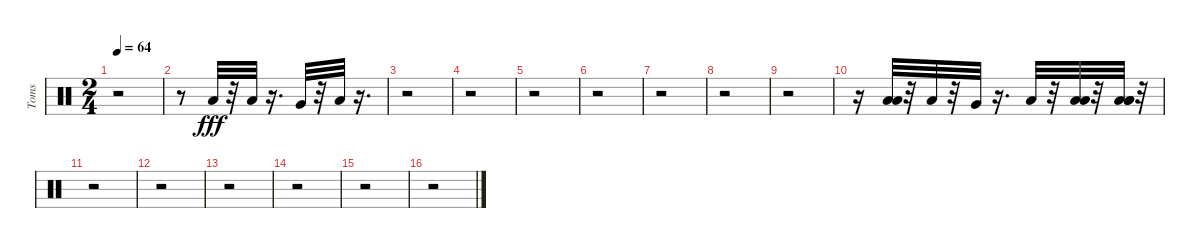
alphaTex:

\track ("Toms" "Toms") {instrument percussion}
\staff {score}
\articulation defaults
\ts (2 4)
\tempo 64
\clef neutral
\ks c
r.2{dy fff} |
r.8 "Low Tom (hit)".32 r.32 "Low Tom (hit)".32 r.16{d} "Very Low Tom (hit)".32 r.32 "Low Floor Tom (hit)".32 r.16{d} |
r.2 |
r.2 |
r.2 |
r.2 |
r.2 |
r.2 |
r.2 |
r.16 ("Low Tom (hit)" "Low Tom (hit)").32 r.32 "Low Tom (hit)".32 r.32 "Very Low Tom (hit)".32 r.16{d} "Low Floor Tom (hit)".32 r.32 ("Low Floor Tom (hit)" "Low Floor Tom (hit)").32 r.32 ("Low Floor Tom (hit)" "Low Floor Tom (hit)" "Low Floor Tom (hit)").32 r.32 |
r.2 |
r.2 |
r.2 |
r.2 |
r.2 |
r.2
